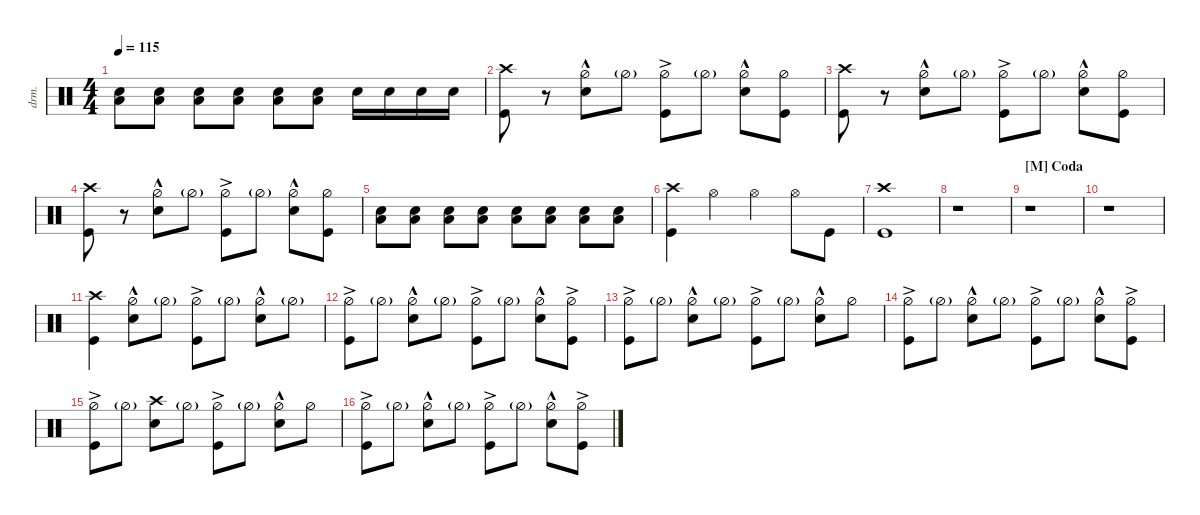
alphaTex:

\defaultSystemsLayout 4
\hideDynamics
\bracketExtendMode nobrackets
\otherSystemsTrackNameOrientation horizontal
\track ("Drums" "drm.") {multiBarRest instrument percussion}
\staff
\articulation defaults
\ts (4 4)
\tempo 115
\clef neutral
\ks c
("Snare (hit) 2" "Low Tom (hit)").8{dy mf} ("Snare (hit) 2" "Low Tom (hit)").8 ("Snare (hit) 2" "Low Tom (hit)").8 ("Snare (hit) 2" "Low Tom (hit)").8{dy f} ("Snare (hit) 2" "Low Tom (hit)").8 ("Snare (hit) 2" "Low Tom (hit)").8 "Snare (hit) 2".16 "Snare (hit) 2".16 "Snare (hit) 2".16 "Snare (hit) 2".16 |
("Kick (hit)" "Crash high (hit)").8 r.8 ("Hi-Hat (half)"{hac} "Snare (hit) 2").8 "Hi-Hat (half)"{g}.8 ("Kick (hit)" "Hi-Hat (half)"{ac}).8 "Hi-Hat (half)"{g}.8 ("Hi-Hat (half)"{hac} "Snare (hit) 2").8 ("Hi-Hat (half)" "Kick (hit)").8 |
("Kick (hit)" "Crash high (hit)").8 r.8 ("Hi-Hat (half)"{hac} "Snare (hit) 2").8 "Hi-Hat (half)"{g}.8 ("Kick (hit)" "Hi-Hat (half)"{ac}).8 "Hi-Hat (half)"{g}.8 ("Hi-Hat (half)"{hac} "Snare (hit) 2").8 ("Hi-Hat (half)" "Kick (hit)").8 |
("Kick (hit)" "Crash high (hit)").8 r.8 ("Hi-Hat (half)"{hac} "Snare (hit) 2").8 "Hi-Hat (half)"{g}.8 ("Kick (hit)" "Hi-Hat (half)"{ac}).8 "Hi-Hat (half)"{g}.8 ("Hi-Hat (half)"{hac} "Snare (hit) 2").8 ("Hi-Hat (half)" "Kick (hit)").8 |
("Snare (hit) 2" "Low Tom (hit)").8{dy mp} ("Snare (hit) 2" "Low Tom (hit)").8 ("Snare (hit) 2" "Low Tom (hit)").8{dy mf} ("Snare (hit) 2" "Low Tom (hit)").8 ("Snare (hit) 2" "Low Tom (hit)").8{dy f} ("Snare (hit) 2" "Low Tom (hit)").8 ("Snare (hit) 2" "Low Tom (hit)").8 ("Snare (hit) 2" "Low Tom (hit)").8 |
("Kick (hit)" "Crash high (hit)").4 "Hi-Hat (open)".4 "Hi-Hat (open)".4 "Hi-Hat (open)".8 "Kick (hit)".8 |
("Kick (hit)" "Crash high (hit)").1 |
r.1 |
\section ("M" "Coda")
r.1 |
r.1 |
("Kick (hit)" "Crash high (hit)").4{dy ff} ("Hi-Hat (half)"{hac} "Snare (hit) 2").8{dy f} "Hi-Hat (half)"{g}.8 ("Kick (hit)" "Hi-Hat (half)"{ac}).8 "Hi-Hat (half)"{g}.8 ("Hi-Hat (half)"{hac} "Snare (hit) 2").8 "Hi-Hat (half)"{g}.8 |
("Kick (hit)" "Hi-Hat (half)"{ac}).8 "Hi-Hat (half)"{g}.8 ("Hi-Hat (half)"{hac} "Snare (hit) 2").8 "Hi-Hat (half)"{g}.8 ("Kick (hit)" "Hi-Hat (half)"{ac}).8 "Hi-Hat (half)"{g}.8 ("Hi-Hat (half)"{hac} "Snare (hit) 2").8 ("Hi-Hat (half)"{ac} "Kick (hit)").8 |
("Kick (hit)" "Hi-Hat (half)"{ac}).8 "Hi-Hat (half)"{g}.8 ("Hi-Hat (half)"{hac} "Snare (hit) 2").8 "Hi-Hat (half)"{g}.8 ("Kick (hit)" "Hi-Hat (half)"{ac}).8 "Hi-Hat (half)"{g}.8 ("Hi-Hat (half)"{hac} "Snare (hit) 2").8 "Hi-Hat (half)".8 |
("Kick (hit)" "Hi-Hat (half)"{ac}).8 "Hi-Hat (half)"{g}.8 ("Hi-Hat (half)"{hac} "Snare (hit) 2").8 "Hi-Hat (half)"{g}.8 ("Kick (hit)" "Hi-Hat (half)"{ac}).8 "Hi-Hat (half)"{g}.8 ("Hi-Hat (half)"{hac} "Snare (hit) 2").8 ("Hi-Hat (half)"{ac} "Kick (hit)").8 |
("Kick (hit)" "Hi-Hat (half)"{ac}).8 "Hi-Hat (half)"{g}.8 ("Snare (hit) 2" "Crash high (hit)").8 "Hi-Hat (half)"{g}.8 ("Kick (hit)" "Hi-Hat (half)"{ac}).8 "Hi-Hat (half)"{g}.8 ("Hi-Hat (half)"{hac} "Snare (hit) 2").8 "Hi-Hat (half)".8 |
("Kick (hit)" "Hi-Hat (half)"{ac}).8 "Hi-Hat (half)"{g}.8 ("Hi-Hat (half)"{hac} "Snare (hit) 2").8 "Hi-Hat (half)"{g}.8 ("Kick (hit)" "Hi-Hat (half)"{ac}).8 "Hi-Hat (half)"{g}.8 ("Hi-Hat (half)"{hac} "Snare (hit) 2").8 ("Hi-Hat (half)"{ac} "Kick (hit)").8
